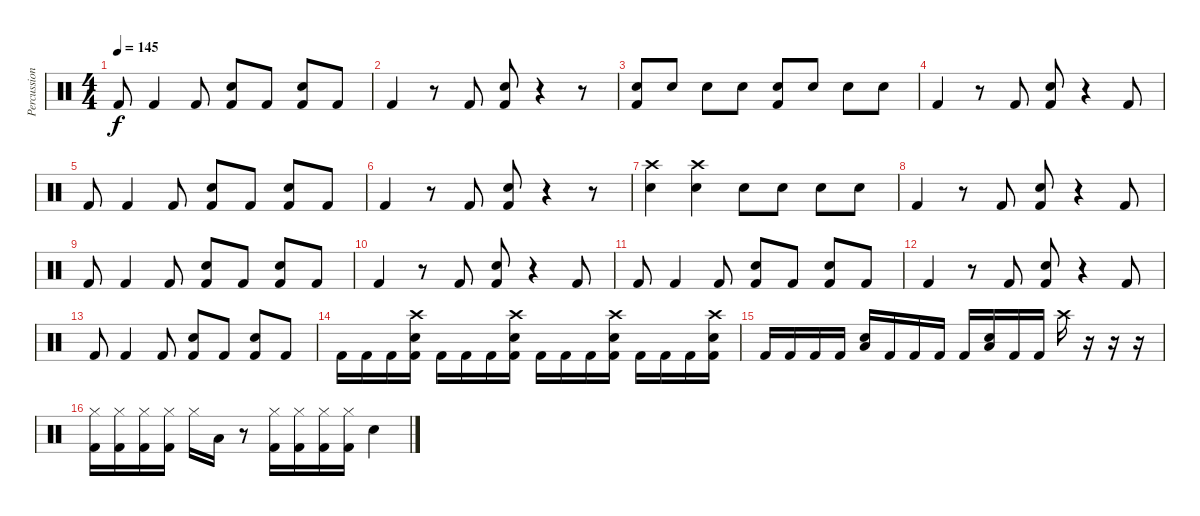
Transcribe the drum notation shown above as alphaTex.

\track ("Percussion" "Percussion") {instrument percussion}
\staff {score}
\articulation defaults
\ts (4 4)
\tempo 145
\clef neutral
\ks c "Kick (hit) 2".8{dy f} "Kick (hit) 2".4 "Kick (hit) 2".8
("Snare (hit) 2" "Kick (hit) 2").8 "Kick (hit) 2".8 ("Snare (hit) 2" "Kick (hit) 2").8 "Kick (hit) 2".8 |
"Kick (hit) 2".4 r.8 "Kick (hit) 2".8 ("Snare (hit) 2" "Kick (hit) 2").8 r.4 r.8 |
("Snare (hit) 2" "Kick (hit) 2").8 "Snare (hit) 2".8 "Snare (hit) 2".8 "Snare (hit) 2".8 ("Snare (hit) 2" "Kick (hit) 2").8 "Snare (hit) 2".8 "Snare (hit) 2".8 "Snare (hit) 2".8 |
"Kick (hit) 2".4 r.8 "Kick (hit) 2".8 ("Snare (hit) 2" "Kick (hit) 2").8 r.4 "Kick (hit) 2".8 |
"Kick (hit) 2".8 "Kick (hit) 2".4 "Kick (hit) 2".8 ("Snare (hit) 2" "Kick (hit) 2").8 "Kick (hit) 2".8 ("Snare (hit) 2" "Kick (hit) 2").8 "Kick (hit) 2".8 |
"Kick (hit) 2".4 r.8 "Kick (hit) 2".8 ("Snare (hit) 2" "Kick (hit) 2").8 r.4 r.8 |
("Crash high (hit)" "Snare (hit) 2").4 ("Crash high (hit)" "Snare (hit) 2").4 "Snare (hit) 2".8 "Snare (hit) 2".8 "Snare (hit) 2".8 "Snare (hit) 2".8 |
"Kick (hit) 2".4 r.8 "Kick (hit) 2".8 ("Snare (hit) 2" "Kick (hit) 2").8 r.4 "Kick (hit) 2".8 |
"Kick (hit) 2".8 "Kick (hit) 2".4 "Kick (hit) 2".8 ("Snare (hit) 2" "Kick (hit) 2").8 "Kick (hit) 2".8 ("Snare (hit) 2" "Kick (hit) 2").8 "Kick (hit) 2".8 |
"Kick (hit) 2".4 r.8 "Kick (hit) 2".8 ("Snare (hit) 2" "Kick (hit) 2").8 r.4 "Kick (hit) 2".8 |
"Kick (hit) 2".8 "Kick (hit) 2".4 "Kick (hit) 2".8 ("Snare (hit) 2" "Kick (hit) 2").8 "Kick (hit) 2".8 ("Snare (hit) 2" "Kick (hit) 2").8 "Kick (hit) 2".8 |
"Kick (hit) 2".4 r.8 "Kick (hit) 2".8 ("Snare (hit) 2" "Kick (hit) 2").8 r.4 "Kick (hit) 2".8 |
"Kick (hit) 2".8 "Kick (hit) 2".4 "Kick (hit) 2".8 ("Snare (hit) 2" "Kick (hit) 2").8 "Kick (hit) 2".8 ("Snare (hit) 2" "Kick (hit) 2").8 "Kick (hit) 2".8 |
"Kick (hit) 2".16 "Kick (hit) 2".16 "Kick (hit) 2".16 ("Crash high (hit)" "Snare (hit) 2" "Kick (hit) 2").16 "Kick (hit) 2".16 "Kick (hit) 2".16 "Kick (hit) 2".16 ("Crash high (hit)" "Snare (hit) 2" "Kick (hit) 2").16 "Kick (hit) 2".16 "Kick (hit) 2".16 "Kick (hit) 2".16 ("Crash high (hit)" "Snare (hit) 2" "Kick (hit) 2").16 "Kick (hit) 2".16 "Kick (hit) 2".16 "Kick (hit) 2".16 ("Crash high (hit)" "Snare (hit) 2" "Kick (hit) 2").16 |
"Kick (hit) 2".16 "Kick (hit) 2".16 "Kick (hit) 2".16 "Kick (hit) 2".16 ("Snare (hit) 2" "Low Tom (hit)").16 "Kick (hit) 2".16 "Kick (hit) 2".16 "Kick (hit) 2".16 "Kick (hit) 2".16 ("Snare (hit) 2" "Low Tom (hit)").16 "Kick (hit) 2".16 "Kick (hit) 2".16 "Crash high (hit)".16 r.16 r.16 r.16 |
("Hi-Hat (closed)" "Kick (hit) 2").16 ("Hi-Hat (closed)" "Kick (hit) 2").16 ("Hi-Hat (closed)" "Kick (hit) 2").16 ("Hi-Hat (closed)" "Kick (hit) 2").16 "Hi-Hat (closed)".16 "Low Floor Tom (hit)".16 r.8 ("Hi-Hat (closed)" "Kick (hit) 2").16 ("Hi-Hat (closed)" "Kick (hit) 2").16 ("Hi-Hat (closed)" "Kick (hit) 2").16 ("Hi-Hat (closed)" "Kick (hit) 2").16 "Snare (hit) 2".4
